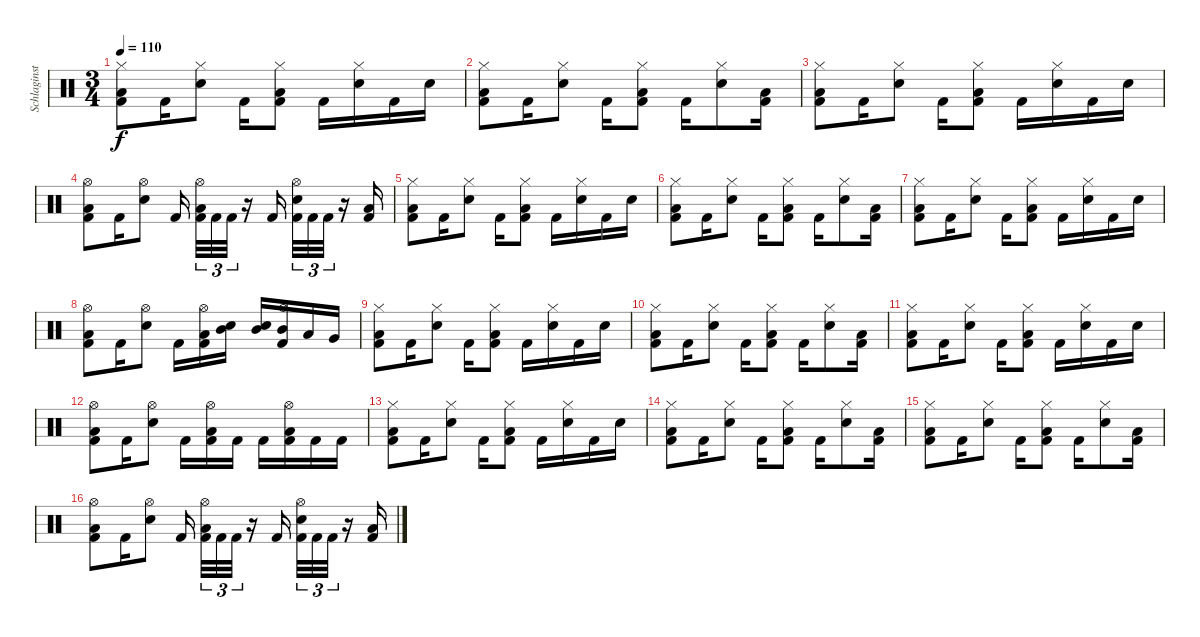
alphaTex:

\track ("Schlaginstrumente - Auswahl" "Schlaginst") {instrument percussion}
\staff {score}
\articulation defaults
\ts (3 4)
\tempo 110
\clef neutral
\ks c
("Hi-Hat (closed)" "Low Tom (hit)" "Kick (hit) 2").8{dy f} "Kick (hit) 2".16 ("Hi-Hat (closed)" "Snare (hit) 2").8 "Kick (hit) 2".16 ("Hi-Hat (closed)" "Low Tom (hit)" "Kick (hit) 2").8 "Kick (hit) 2".16 ("Hi-Hat (closed)" "Snare (hit) 2").16 "Kick (hit) 2".16 "Snare (hit) 2".16 |
("Hi-Hat (closed)" "Low Tom (hit)" "Kick (hit) 2").8 "Kick (hit) 2".16 ("Hi-Hat (closed)" "Snare (hit) 2").8 "Kick (hit) 2".16 ("Hi-Hat (closed)" "Low Tom (hit)" "Kick (hit) 2").8 "Kick (hit) 2".16 ("Hi-Hat (closed)" "Snare (hit) 2").8 ("Low Tom (hit)" "Kick (hit) 2").16 |
("Hi-Hat (closed)" "Low Tom (hit)" "Kick (hit) 2").8 "Kick (hit) 2".16 ("Hi-Hat (closed)" "Snare (hit) 2").8 "Kick (hit) 2".16 ("Hi-Hat (closed)" "Low Tom (hit)" "Kick (hit) 2").8 "Kick (hit) 2".16 ("Hi-Hat (closed)" "Snare (hit) 2").16 "Kick (hit) 2".16 "Snare (hit) 2".16 |
("Hi-Hat (open)" "Low Tom (hit)" "Kick (hit) 2").8 "Kick (hit) 2".16 ("Hi-Hat (open)" "Snare (hit) 2").8 "Kick (hit) 2".16{beam splitsecondary} ("Hi-Hat (open)" "Low Tom (hit)" "Kick (hit) 2").32{tu (3 2)} "Kick (hit) 2".32{tu (3 2)} "Kick (hit) 2".32{tu (3 2)} r.16 "Kick (hit) 2".16{beam splitsecondary} ("Hi-Hat (open)" "Snare (hit) 2" "Kick (hit) 2").32{tu (3 2)} "Kick (hit) 2".32{tu (3 2)} "Kick (hit) 2".32{tu (3 2)} r.16 ("Low Tom (hit)" "Kick (hit) 2").16 |
("Hi-Hat (closed)" "Low Tom (hit)" "Kick (hit) 2").8 "Kick (hit) 2".16 ("Hi-Hat (closed)" "Snare (hit) 2").8 "Kick (hit) 2".16 ("Hi-Hat (closed)" "Low Tom (hit)" "Kick (hit) 2").8 "Kick (hit) 2".16 ("Hi-Hat (closed)" "Snare (hit) 2").16 "Kick (hit) 2".16 "Snare (hit) 2".16 |
("Hi-Hat (closed)" "Low Tom (hit)" "Kick (hit) 2").8 "Kick (hit) 2".16 ("Hi-Hat (closed)" "Snare (hit) 2").8 "Kick (hit) 2".16 ("Hi-Hat (closed)" "Low Tom (hit)" "Kick (hit) 2").8 "Kick (hit) 2".16 ("Hi-Hat (closed)" "Snare (hit) 2").8 ("Low Tom (hit)" "Kick (hit) 2").16 |
("Hi-Hat (closed)" "Low Tom (hit)" "Kick (hit) 2").8 "Kick (hit) 2".16 ("Hi-Hat (closed)" "Snare (hit) 2").8 "Kick (hit) 2".16 ("Hi-Hat (closed)" "Low Tom (hit)" "Kick (hit) 2").8 "Kick (hit) 2".16 ("Hi-Hat (closed)" "Snare (hit) 2").16 "Kick (hit) 2".16 "Snare (hit) 2".16 |
("Hi-Hat (open)" "Low Tom (hit)" "Kick (hit) 2").8 "Kick (hit) 2".16 ("Hi-Hat (open)" "Snare (hit) 2").8 "Kick (hit) 2".16 ("Hi-Hat (open)" "Low Tom (hit)" "Kick (hit) 2").16 ("Snare (hit) 2" "Mid Tom (hit)").16 ("Snare (hit) 2" "Mid Tom (hit)").16 ("Hi-Hat (open)" "Mid Tom (hit)" "Kick (hit) 2").16 "Low Tom (hit)".16 "Very Low Tom (hit)".16 |
("Hi-Hat (closed)" "Low Tom (hit)" "Kick (hit) 2").8 "Kick (hit) 2".16 ("Hi-Hat (closed)" "Snare (hit) 2").8 "Kick (hit) 2".16 ("Hi-Hat (closed)" "Low Tom (hit)" "Kick (hit) 2").8 "Kick (hit) 2".16 ("Hi-Hat (closed)" "Snare (hit) 2").16 "Kick (hit) 2".16 "Snare (hit) 2".16 |
("Hi-Hat (closed)" "Low Tom (hit)" "Kick (hit) 2").8 "Kick (hit) 2".16 ("Hi-Hat (closed)" "Snare (hit) 2").8 "Kick (hit) 2".16 ("Hi-Hat (closed)" "Low Tom (hit)" "Kick (hit) 2").8 "Kick (hit) 2".16 ("Hi-Hat (closed)" "Snare (hit) 2").8 ("Low Tom (hit)" "Kick (hit) 2").16 |
("Hi-Hat (closed)" "Low Tom (hit)" "Kick (hit) 2").8 "Kick (hit) 2".16 ("Hi-Hat (closed)" "Snare (hit) 2").8 "Kick (hit) 2".16 ("Hi-Hat (closed)" "Low Tom (hit)" "Kick (hit) 2").8 "Kick (hit) 2".16 ("Hi-Hat (closed)" "Snare (hit) 2").16 "Kick (hit) 2".16 "Snare (hit) 2".16 |
("Hi-Hat (open)" "Low Tom (hit)" "Kick (hit) 2").8 "Kick (hit) 2".16 ("Hi-Hat (open)" "Snare (hit) 2").8 "Kick (hit) 2".16 ("Hi-Hat (open)" "Low Tom (hit)" "Kick (hit) 2").16 "Kick (hit) 2".16 "Kick (hit) 2".16 ("Hi-Hat (open)" "Low Tom (hit)" "Kick (hit) 2").16 "Kick (hit) 2".16 "Kick (hit) 2".16 |
("Hi-Hat (closed)" "Low Tom (hit)" "Kick (hit) 2").8 "Kick (hit) 2".16 ("Hi-Hat (closed)" "Snare (hit) 2").8 "Kick (hit) 2".16 ("Hi-Hat (closed)" "Low Tom (hit)" "Kick (hit) 2").8 "Kick (hit) 2".16 ("Hi-Hat (closed)" "Snare (hit) 2").16 "Kick (hit) 2".16 "Snare (hit) 2".16 |
("Hi-Hat (closed)" "Low Tom (hit)" "Kick (hit) 2").8 "Kick (hit) 2".16 ("Hi-Hat (closed)" "Snare (hit) 2").8 "Kick (hit) 2".16 ("Hi-Hat (closed)" "Low Tom (hit)" "Kick (hit) 2").8 "Kick (hit) 2".16 ("Hi-Hat (closed)" "Snare (hit) 2").8 ("Low Tom (hit)" "Kick (hit) 2").16 |
("Hi-Hat (closed)" "Low Tom (hit)" "Kick (hit) 2").8 "Kick (hit) 2".16 ("Hi-Hat (closed)" "Snare (hit) 2").8 "Kick (hit) 2".16 ("Hi-Hat (closed)" "Low Tom (hit)" "Kick (hit) 2").8 "Kick (hit) 2".16 ("Hi-Hat (closed)" "Snare (hit) 2").8 ("Low Tom (hit)" "Kick (hit) 2").16 |
("Hi-Hat (open)" "Low Tom (hit)" "Kick (hit) 2").8 "Kick (hit) 2".16 ("Hi-Hat (open)" "Snare (hit) 2").8 "Kick (hit) 2".16{beam splitsecondary} ("Hi-Hat (open)" "Low Tom (hit)" "Kick (hit) 2").32{tu (3 2)} "Kick (hit) 2".32{tu (3 2)} "Kick (hit) 2".32{tu (3 2)} r.16 "Kick (hit) 2".16{beam splitsecondary} ("Hi-Hat (open)" "Snare (hit) 2" "Kick (hit) 2").32{tu (3 2)} "Kick (hit) 2".32{tu (3 2)} "Kick (hit) 2".32{tu (3 2)} r.16 ("Low Tom (hit)" "Kick (hit) 2").16
